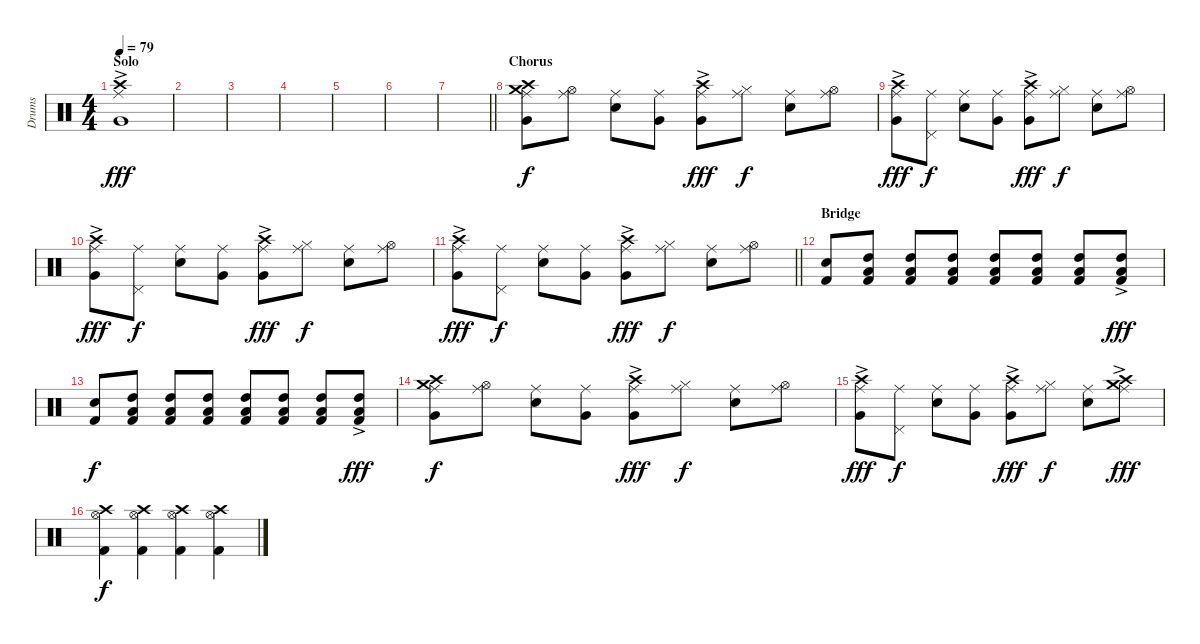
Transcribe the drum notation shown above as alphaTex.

\track ("Drums" "Drums") {instrument percussion}
\staff {score}
\articulation defaults
\ts (4 4)
\section ("" "Solo")
\tempo 79
\clef neutral
\ks c
("Crash high (hit)"{ac} "Very Low Tom (hit)" "Ride (middle)").1{dy fff} |
|
|
|
|
|
\barLineRight lightlight
|
\section ("" "Chorus")
("Crash medium (hit)" "Crash high (hit)" "Very Low Tom (hit)" "Ride (middle)").8{dy f} ("Hi-Hat (open)" "Ride (middle)").8 ("Snare (hit) 2" "Ride (middle)").8 ("Very Low Tom (hit)" "Ride (middle)").8 ("Crash high (hit)"{ac} "Very Low Tom (hit)" "Ride (middle)").8{dy fff} ("Hi-Hat (closed)" "Ride (middle)").8{dy f} ("Snare (hit) 2" "Ride (middle)").8 ("Hi-Hat (open)" "Ride (middle)").8 |
("Crash high (hit)"{ac} "Very Low Tom (hit)" "Ride (middle)").8{dy fff} ("Pedal Hi-Hat (hit)" "Ride (middle)").8{dy f} ("Snare (hit) 2" "Ride (middle)").8 ("Very Low Tom (hit)" "Ride (middle)").8 ("Crash high (hit)"{ac} "Very Low Tom (hit)" "Ride (middle)").8{dy fff} ("Hi-Hat (closed)" "Ride (middle)").8{dy f} ("Snare (hit) 2" "Ride (middle)").8 ("Hi-Hat (open)" "Ride (middle)").8 |
("Crash high (hit)"{ac} "Very Low Tom (hit)" "Ride (middle)").8{dy fff} ("Pedal Hi-Hat (hit)" "Ride (middle)").8{dy f} ("Snare (hit) 2" "Ride (middle)").8 ("Very Low Tom (hit)" "Ride (middle)").8 ("Crash high (hit)"{ac} "Very Low Tom (hit)" "Ride (middle)").8{dy fff} ("Hi-Hat (closed)" "Ride (middle)").8{dy f} ("Snare (hit) 2" "Ride (middle)").8 ("Hi-Hat (open)" "Ride (middle)").8 |
\barLineRight lightlight
("Crash high (hit)"{ac} "Very Low Tom (hit)" "Ride (middle)").8{dy fff} ("Pedal Hi-Hat (hit)" "Ride (middle)").8{dy f} ("Snare (hit) 2" "Ride (middle)").8 ("Very Low Tom (hit)" "Ride (middle)").8 ("Crash high (hit)"{ac} "Very Low Tom (hit)" "Ride (middle)").8{dy fff} ("Hi-Hat (closed)" "Ride (middle)").8{dy f} ("Snare (hit) 2" "Ride (middle)").8 ("Hi-Hat (open)" "Ride (middle)").8 |
\section ("" "Bridge")
("Kick (hit) 2" "Snare (hit) 2").8 ("High Tom (hit)" "Kick (hit) 2" "Low Tom (hit)").8 ("High Tom (hit)" "Kick (hit) 2" "Low Tom (hit)").8 ("High Tom (hit)" "Kick (hit) 2" "Low Tom (hit)").8 ("High Tom (hit)" "Kick (hit) 2" "Low Tom (hit)").8 ("High Tom (hit)" "Kick (hit) 2" "Low Tom (hit)").8 ("High Tom (hit)" "Kick (hit) 2" "Low Tom (hit)").8 ("High Tom (hit)"{ac} "Kick (hit) 2"{ac} "Low Tom (hit)"{ac}).8{dy fff} |
("Kick (hit) 2" "Snare (hit) 2").8{dy f} ("High Tom (hit)" "Kick (hit) 2" "Low Tom (hit)").8 ("High Tom (hit)" "Kick (hit) 2" "Low Tom (hit)").8 ("High Tom (hit)" "Kick (hit) 2" "Low Tom (hit)").8 ("High Tom (hit)" "Kick (hit) 2" "Low Tom (hit)").8 ("High Tom (hit)" "Kick (hit) 2" "Low Tom (hit)").8 ("High Tom (hit)" "Kick (hit) 2" "Low Tom (hit)").8 ("High Tom (hit)"{ac} "Kick (hit) 2"{ac} "Low Tom (hit)"{ac}).8{dy fff} |
("Crash medium (hit)" "Crash high (hit)" "Very Low Tom (hit)" "Ride (middle)").8{dy f} ("Hi-Hat (open)" "Ride (middle)").8 ("Snare (hit) 2" "Ride (middle)").8 ("Very Low Tom (hit)" "Ride (middle)").8 ("Crash high (hit)"{ac} "Very Low Tom (hit)" "Ride (middle)").8{dy fff} ("Hi-Hat (closed)" "Ride (middle)").8{dy f} ("Snare (hit) 2" "Ride (middle)").8 ("Hi-Hat (open)" "Ride (middle)").8 |
("Crash high (hit)"{ac} "Very Low Tom (hit)" "Ride (middle)").8{dy fff} ("Pedal Hi-Hat (hit)" "Ride (middle)").8{dy f} ("Snare (hit) 2" "Ride (middle)").8 ("Very Low Tom (hit)" "Ride (middle)").8 ("Crash high (hit)"{ac} "Very Low Tom (hit)" "Ride (middle)").8{dy fff} ("Hi-Hat (closed)" "Ride (middle)").8{dy f} ("Snare (hit) 2" "Ride (middle)").8 ("Crash high (hit)"{ac} "Crash medium (hit)" "Ride (middle)").8{dy fff} |
("Crash high (hit)" "Hi-Hat (open)" "Kick (hit) 2").4{dy f} ("Crash high (hit)" "Hi-Hat (open)" "Kick (hit) 2").4 ("Crash high (hit)" "Hi-Hat (open)" "Kick (hit) 2").4 ("Crash high (hit)" "Hi-Hat (open)" "Kick (hit) 2").4
